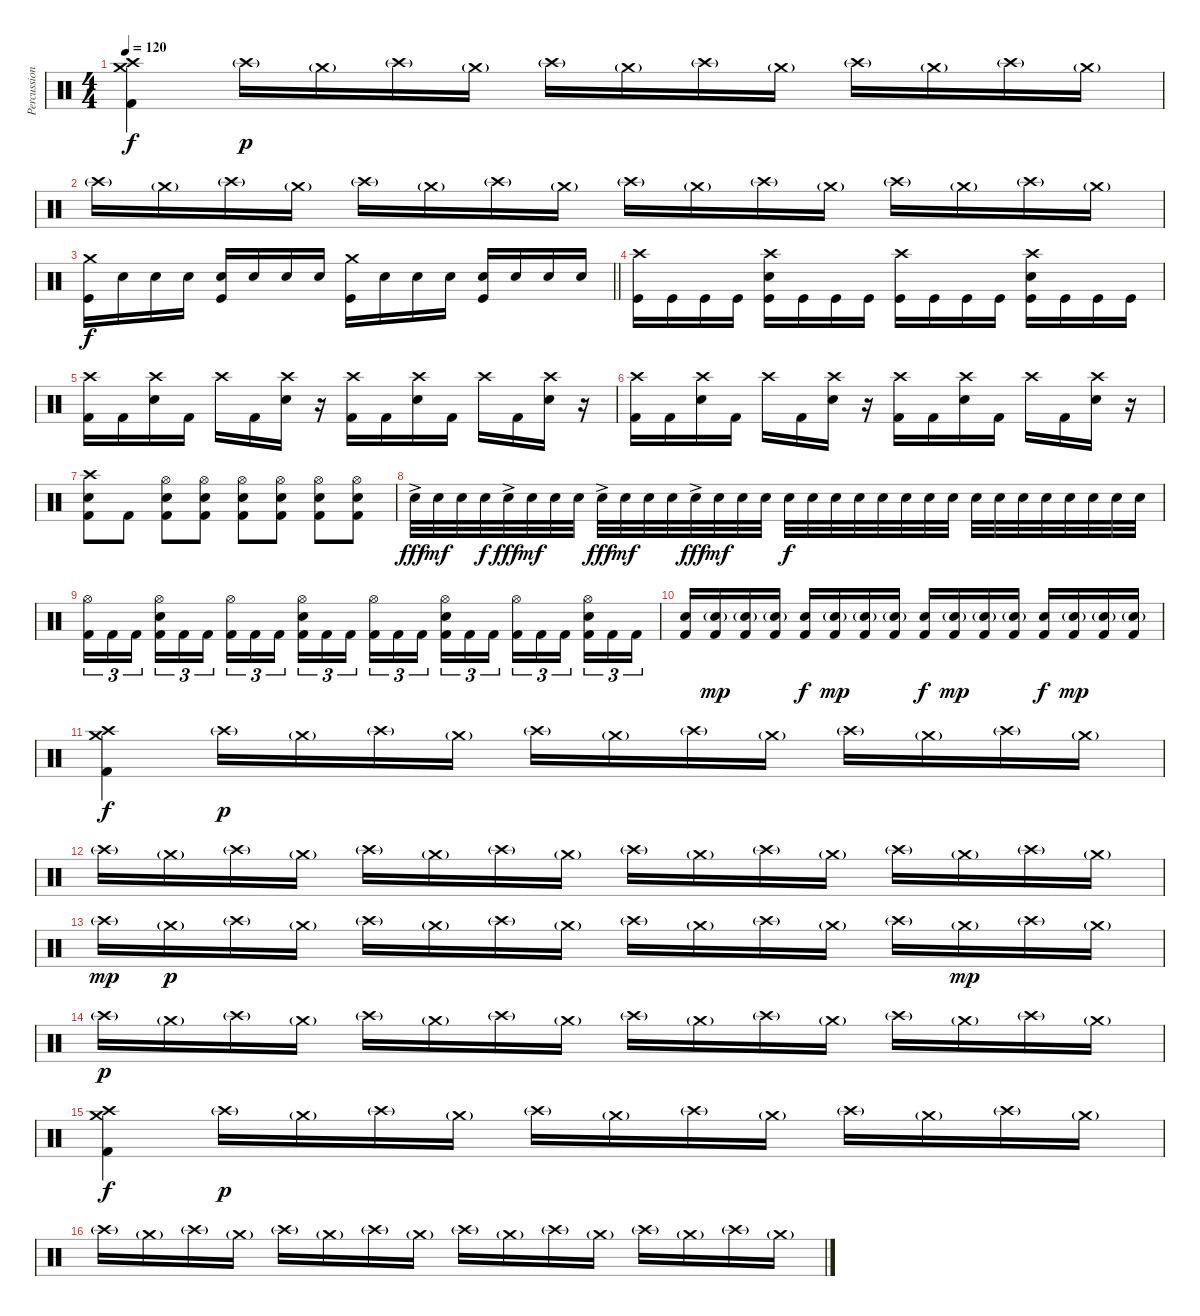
\track ("Percussions" "Percussion") {instrument percussion}
\staff {score}
\articulation defaults
\ts (4 4)
\tempo 120
\clef neutral
\ks c
("Crash medium (hit)" "Crash high (hit)" "Kick (hit) 2").4{dy f} "Crash high (hit)"{g}.16{dy p} "Crash medium (hit)"{g}.16 "Crash high (hit)"{g}.16 "Crash medium (hit)"{g}.16 "Crash high (hit)"{g}.16 "Crash medium (hit)"{g}.16 "Crash high (hit)"{g}.16 "Crash medium (hit)"{g}.16 "Crash high (hit)"{g}.16 "Crash medium (hit)"{g}.16 "Crash high (hit)"{g}.16 "Crash medium (hit)"{g}.16 |
"Crash high (hit)"{g}.16 "Crash medium (hit)"{g}.16 "Crash high (hit)"{g}.16 "Crash medium (hit)"{g}.16 "Crash high (hit)"{g}.16 "Crash medium (hit)"{g}.16 "Crash high (hit)"{g}.16 "Crash medium (hit)"{g}.16 "Crash high (hit)"{g}.16 "Crash medium (hit)"{g}.16 "Crash high (hit)"{g}.16 "Crash medium (hit)"{g}.16 "Crash high (hit)"{g}.16 "Crash medium (hit)"{g}.16 "Crash high (hit)"{g}.16 "Crash medium (hit)"{g}.16 |
\barLineRight lightlight
("Crash medium (hit)" "Kick (hit)").16{dy f} "Snare (hit) 2".16 "Snare (hit) 2".16 "Snare (hit) 2".16 ("Snare (hit) 2" "Kick (hit)").16 "Snare (hit) 2".16 "Snare (hit) 2".16 "Snare (hit) 2".16 ("Crash medium (hit)" "Kick (hit)").16 "Snare (hit) 2".16 "Snare (hit) 2".16 "Snare (hit) 2".16 ("Snare (hit) 2" "Kick (hit)").16 "Snare (hit) 2".16 "Snare (hit) 2".16 "Snare (hit) 2".16 |
("Crash high (hit)" "Kick (hit)").16 "Kick (hit)".16 "Kick (hit)".16 "Kick (hit)".16 ("Crash high (hit)" "Snare (hit) 2" "Kick (hit)").16 "Kick (hit)".16 "Kick (hit)".16 "Kick (hit)".16 ("Crash high (hit)" "Kick (hit)").16 "Kick (hit)".16 "Kick (hit)".16 "Kick (hit)".16 ("Crash high (hit)" "Snare (hit) 2" "Kick (hit)").16 "Kick (hit)".16 "Kick (hit)".16 "Kick (hit)".16 |
("Crash high (hit)" "Kick (hit) 2").16 "Kick (hit) 2".16 ("Crash high (hit)" "Snare (hit) 2").16 "Kick (hit) 2".16 "Crash high (hit)".16 "Kick (hit) 2".16 ("Crash high (hit)" "Snare (hit) 2").16 r.16 ("Crash high (hit)" "Kick (hit) 2").16 "Kick (hit) 2".16 ("Crash high (hit)" "Snare (hit) 2").16 "Kick (hit) 2".16 "Crash high (hit)".16 "Kick (hit) 2".16 ("Crash high (hit)" "Snare (hit) 2").16 r.16 |
("Crash high (hit)" "Kick (hit) 2").16 "Kick (hit) 2".16 ("Crash high (hit)" "Snare (hit) 2").16 "Kick (hit) 2".16 "Crash high (hit)".16 "Kick (hit) 2".16 ("Crash high (hit)" "Snare (hit) 2").16 r.16 ("Crash high (hit)" "Kick (hit) 2").16 "Kick (hit) 2".16 ("Crash high (hit)" "Snare (hit) 2").16 "Kick (hit) 2".16 "Crash high (hit)".16 "Kick (hit) 2".16 ("Crash high (hit)" "Snare (hit) 2").16 r.16 |
("Crash high (hit)" "Electric Snare (hit)" "Kick (hit) 2").8 "Kick (hit) 2".8 ("Hi-Hat (open)" "Electric Snare (hit)" "Kick (hit) 2").8 ("Hi-Hat (open)" "Electric Snare (hit)" "Kick (hit) 2").8 ("Hi-Hat (open)" "Electric Snare (hit)" "Kick (hit) 2").8 ("Hi-Hat (open)" "Electric Snare (hit)" "Kick (hit) 2").8 ("Hi-Hat (open)" "Electric Snare (hit)" "Kick (hit) 2").8 ("Hi-Hat (open)" "Electric Snare (hit)" "Kick (hit) 2").8 |
"Electric Snare (hit)"{ac}.32{dy fff} "Electric Snare (hit)".32{dy mf} "Electric Snare (hit)".32 "Electric Snare (hit)".32{dy f} "Electric Snare (hit)"{ac}.32{dy fff} "Electric Snare (hit)".32{dy mf} "Electric Snare (hit)".32 "Electric Snare (hit)".32 "Electric Snare (hit)"{ac}.32{dy fff} "Electric Snare (hit)".32{dy mf} "Electric Snare (hit)".32 "Electric Snare (hit)".32 "Electric Snare (hit)"{ac}.32{dy fff} "Electric Snare (hit)".32{dy mf} "Electric Snare (hit)".32 "Electric Snare (hit)".32 "Electric Snare (hit)".32{dy f} "Electric Snare (hit)".32 "Electric Snare (hit)".32 "Electric Snare (hit)".32 "Electric Snare (hit)".32 "Electric Snare (hit)".32 "Electric Snare (hit)".32 "Electric Snare (hit)".32 "Electric Snare (hit)".32 "Electric Snare (hit)".32 "Electric Snare (hit)".32 "Electric Snare (hit)".32 "Electric Snare (hit)".32 "Electric Snare (hit)".32 "Electric Snare (hit)".32 "Electric Snare (hit)".32 |
("Hi-Hat (open)" "Kick (hit) 2").16{tu (3 2)} "Kick (hit) 2".16{tu (3 2)} "Kick (hit) 2".16{tu (3 2) beam splitsecondary} ("Hi-Hat (open)" "Electric Snare (hit)" "Kick (hit) 2").16{tu (3 2)} "Kick (hit) 2".16{tu (3 2)} "Kick (hit) 2".16{tu (3 2)} ("Hi-Hat (open)" "Kick (hit) 2").16{tu (3 2)} "Kick (hit) 2".16{tu (3 2)} "Kick (hit) 2".16{tu (3 2) beam splitsecondary} ("Hi-Hat (open)" "Electric Snare (hit)" "Kick (hit) 2").16{tu (3 2)} "Kick (hit) 2".16{tu (3 2)} "Kick (hit) 2".16{tu (3 2)} ("Hi-Hat (open)" "Kick (hit) 2").16{tu (3 2)} "Kick (hit) 2".16{tu (3 2)} "Kick (hit) 2".16{tu (3 2) beam splitsecondary} ("Hi-Hat (open)" "Electric Snare (hit)" "Kick (hit) 2").16{tu (3 2)} "Kick (hit) 2".16{tu (3 2)} "Kick (hit) 2".16{tu (3 2)} ("Hi-Hat (open)" "Kick (hit) 2").16{tu (3 2)} "Kick (hit) 2".16{tu (3 2)} "Kick (hit) 2".16{tu (3 2) beam splitsecondary} ("Hi-Hat (open)" "Electric Snare (hit)" "Kick (hit) 2").16{tu (3 2)} "Kick (hit) 2".16{tu (3 2)} "Kick (hit) 2".16{tu (3 2)} |
("Electric Snare (hit)" "Kick (hit) 2").16 ("Electric Snare (hit)"{g} "Kick (hit) 2").16{dy mp} ("Electric Snare (hit)"{g} "Kick (hit) 2").16 ("Electric Snare (hit)"{g} "Kick (hit) 2").16 ("Electric Snare (hit)" "Kick (hit) 2").16{dy f} ("Electric Snare (hit)"{g} "Kick (hit) 2").16{dy mp} ("Electric Snare (hit)"{g} "Kick (hit) 2").16 ("Electric Snare (hit)"{g} "Kick (hit) 2").16 ("Electric Snare (hit)" "Kick (hit) 2").16{dy f} ("Electric Snare (hit)"{g} "Kick (hit) 2").16{dy mp} ("Electric Snare (hit)"{g} "Kick (hit) 2").16 ("Electric Snare (hit)"{g} "Kick (hit) 2").16 ("Electric Snare (hit)" "Kick (hit) 2").16{dy f} ("Electric Snare (hit)"{g} "Kick (hit) 2").16{dy mp} ("Electric Snare (hit)"{g} "Kick (hit) 2").16 ("Electric Snare (hit)"{g} "Kick (hit) 2").16 |
("Crash medium (hit)" "Crash high (hit)" "Kick (hit) 2").4{dy f} "Crash high (hit)"{g}.16{dy p} "Crash medium (hit)"{g}.16 "Crash high (hit)"{g}.16 "Crash medium (hit)"{g}.16 "Crash high (hit)"{g}.16 "Crash medium (hit)"{g}.16 "Crash high (hit)"{g}.16 "Crash medium (hit)"{g}.16 "Crash high (hit)"{g}.16 "Crash medium (hit)"{g}.16 "Crash high (hit)"{g}.16 "Crash medium (hit)"{g}.16 |
"Crash high (hit)"{g}.16 "Crash medium (hit)"{g}.16 "Crash high (hit)"{g}.16 "Crash medium (hit)"{g}.16 "Crash high (hit)"{g}.16 "Crash medium (hit)"{g}.16 "Crash high (hit)"{g}.16 "Crash medium (hit)"{g}.16 "Crash high (hit)"{g}.16 "Crash medium (hit)"{g}.16 "Crash high (hit)"{g}.16 "Crash medium (hit)"{g}.16 "Crash high (hit)"{g}.16 "Crash medium (hit)"{g}.16 "Crash high (hit)"{g}.16 "Crash medium (hit)"{g}.16 |
"Crash high (hit)"{g}.16{dy mp} "Crash medium (hit)"{g}.16{dy p} "Crash high (hit)"{g}.16 "Crash medium (hit)"{g}.16 "Crash high (hit)"{g}.16 "Crash medium (hit)"{g}.16 "Crash high (hit)"{g}.16 "Crash medium (hit)"{g}.16 "Crash high (hit)"{g}.16 "Crash medium (hit)"{g}.16 "Crash high (hit)"{g}.16 "Crash medium (hit)"{g}.16 "Crash high (hit)"{g}.16 "Crash medium (hit)"{g}.16{dy mp} "Crash high (hit)"{g}.16 "Crash medium (hit)"{g}.16 |
"Crash high (hit)"{g}.16{dy p} "Crash medium (hit)"{g}.16 "Crash high (hit)"{g}.16 "Crash medium (hit)"{g}.16 "Crash high (hit)"{g}.16 "Crash medium (hit)"{g}.16 "Crash high (hit)"{g}.16 "Crash medium (hit)"{g}.16 "Crash high (hit)"{g}.16 "Crash medium (hit)"{g}.16 "Crash high (hit)"{g}.16 "Crash medium (hit)"{g}.16 "Crash high (hit)"{g}.16 "Crash medium (hit)"{g}.16 "Crash high (hit)"{g}.16 "Crash medium (hit)"{g}.16 |
("Crash medium (hit)" "Crash high (hit)" "Kick (hit) 2").4{dy f} "Crash high (hit)"{g}.16{dy p} "Crash medium (hit)"{g}.16 "Crash high (hit)"{g}.16 "Crash medium (hit)"{g}.16 "Crash high (hit)"{g}.16 "Crash medium (hit)"{g}.16 "Crash high (hit)"{g}.16 "Crash medium (hit)"{g}.16 "Crash high (hit)"{g}.16 "Crash medium (hit)"{g}.16 "Crash high (hit)"{g}.16 "Crash medium (hit)"{g}.16 |
"Crash high (hit)"{g}.16 "Crash medium (hit)"{g}.16 "Crash high (hit)"{g}.16 "Crash medium (hit)"{g}.16 "Crash high (hit)"{g}.16 "Crash medium (hit)"{g}.16 "Crash high (hit)"{g}.16 "Crash medium (hit)"{g}.16 "Crash high (hit)"{g}.16 "Crash medium (hit)"{g}.16 "Crash high (hit)"{g}.16 "Crash medium (hit)"{g}.16 "Crash high (hit)"{g}.16 "Crash medium (hit)"{g}.16 "Crash high (hit)"{g}.16 "Crash medium (hit)"{g}.16
